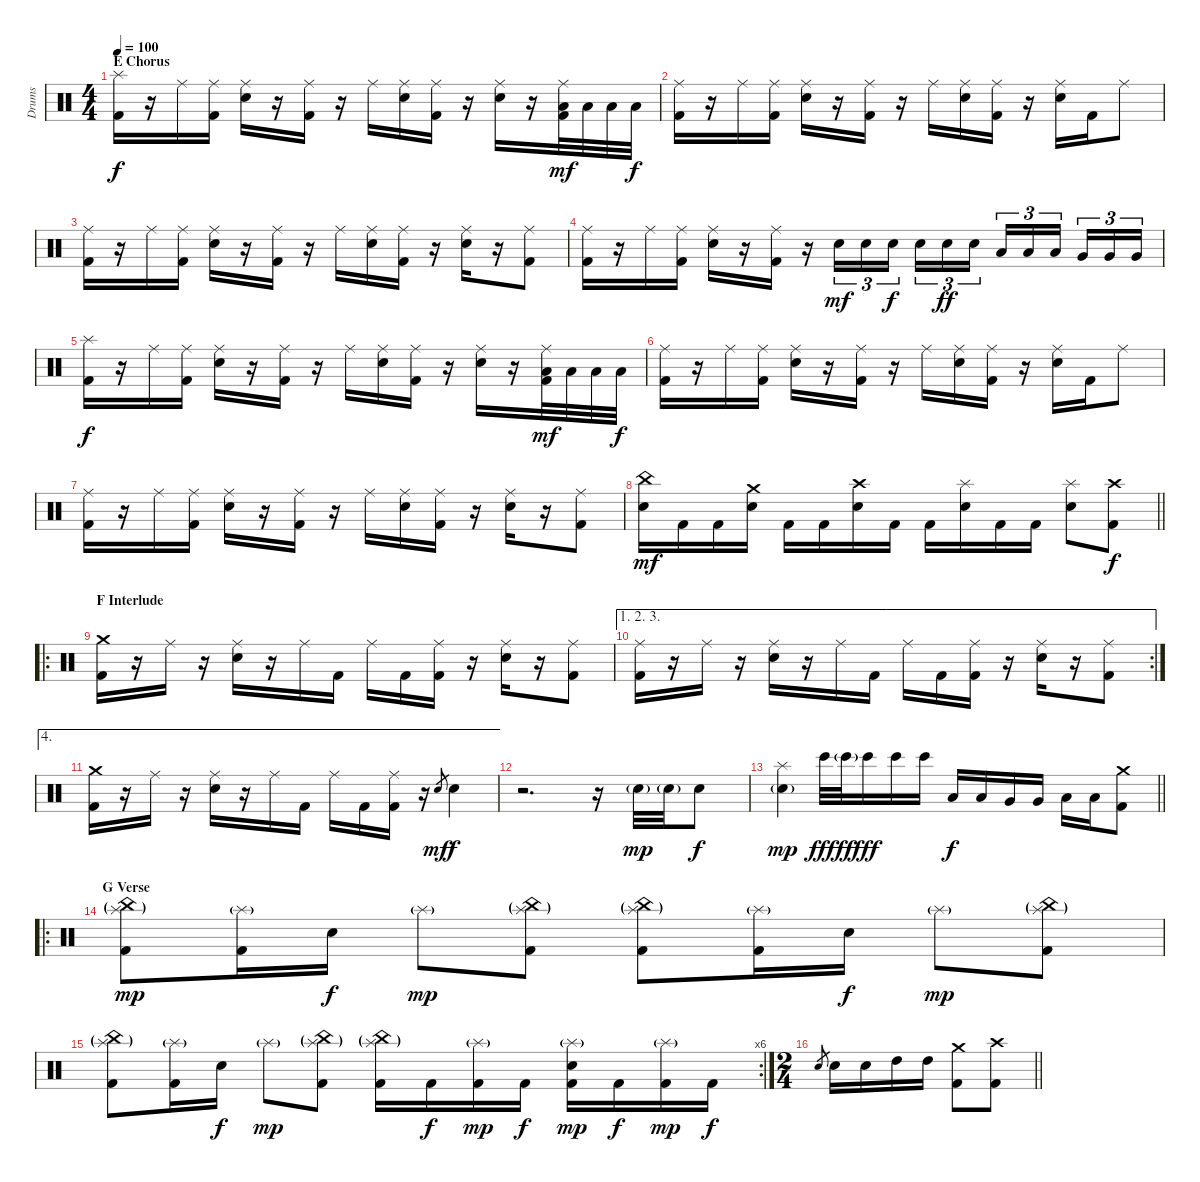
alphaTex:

\track ("Drums" "Drums") {instrument percussion}
\staff {score}
\articulation defaults
\ts (4 4)
\section ("" "E Chorus")
\tempo 100
\clef neutral
\ks c
("Splash (hit)" "Kick (hit) 2").16{dy f} r.16 "Ride (middle)".16 ("Ride (middle)" "Kick (hit) 2").16 ("Ride (middle)" "Electric Snare (hit)").16 r.16 ("Ride (middle)" "Kick (hit) 2").16 r.16 "Ride (middle)".16 ("Ride (middle)" "Electric Snare (hit)").16 ("Ride (middle)" "Kick (hit) 2").16 r.16 ("Ride (middle)" "Electric Snare (hit)").16 r.16 ("Ride (middle)" "Low Floor Tom (hit)" "Kick (hit) 2").32{dy mf} "Low Floor Tom (hit)".32 "Low Floor Tom (hit)".32 "Low Floor Tom (hit)".32{dy f} |
("Ride (middle)" "Kick (hit) 2").16 r.16 "Ride (middle)".16 ("Ride (middle)" "Kick (hit) 2").16 ("Ride (middle)" "Electric Snare (hit)").16 r.16 ("Ride (middle)" "Kick (hit) 2").16 r.16 "Ride (middle)".16 ("Ride (middle)" "Electric Snare (hit)").16 ("Ride (middle)" "Kick (hit) 2").16 r.16 ("Ride (middle)" "Electric Snare (hit)").16 "Kick (hit) 2".16 "Ride (middle)".8 |
("Ride (middle)" "Kick (hit) 2").16 r.16 "Ride (middle)".16 ("Ride (middle)" "Kick (hit) 2").16 ("Ride (middle)" "Electric Snare (hit)").16 r.16 ("Ride (middle)" "Kick (hit) 2").16 r.16 "Ride (middle)".16 ("Ride (middle)" "Electric Snare (hit)").16 ("Ride (middle)" "Kick (hit) 2").16 r.16 ("Ride (middle)" "Electric Snare (hit)").16 r.16 ("Ride (middle)" "Kick (hit) 2").8 |
("Ride (middle)" "Kick (hit) 2").16 r.16 "Ride (middle)".16 ("Ride (middle)" "Kick (hit) 2").16 ("Ride (middle)" "Electric Snare (hit)").16 r.16 ("Ride (middle)" "Kick (hit) 2").16 r.16 "Electric Snare (hit)".16{tu (3 2) dy mf} "Electric Snare (hit)".16{tu (3 2)} "Electric Snare (hit)".16{tu (3 2) dy f beam splitsecondary} "Electric Snare (hit)".16{tu (3 2)} "Electric Snare (hit)".16{tu (3 2) dy ff} "Electric Snare (hit)".16{tu (3 2)} "Low Tom (hit)".16{tu (3 2)} "Low Tom (hit)".16{tu (3 2)} "Low Tom (hit)".16{tu (3 2) beam splitsecondary} "Very Low Tom (hit)".16{tu (3 2)} "Very Low Tom (hit)".16{tu (3 2)} "Very Low Tom (hit)".16{tu (3 2)} |
("Splash (hit)" "Kick (hit) 2").16{dy f} r.16 "Ride (middle)".16 ("Ride (middle)" "Kick (hit) 2").16 ("Ride (middle)" "Electric Snare (hit)").16 r.16 ("Ride (middle)" "Kick (hit) 2").16 r.16 "Ride (middle)".16 ("Ride (middle)" "Electric Snare (hit)").16 ("Ride (middle)" "Kick (hit) 2").16 r.16 ("Ride (middle)" "Electric Snare (hit)").16 r.16 ("Ride (middle)" "Low Floor Tom (hit)" "Kick (hit) 2").32{dy mf} "Low Floor Tom (hit)".32 "Low Floor Tom (hit)".32 "Low Floor Tom (hit)".32{dy f} |
("Ride (middle)" "Kick (hit) 2").16 r.16 "Ride (middle)".16 ("Ride (middle)" "Kick (hit) 2").16 ("Ride (middle)" "Electric Snare (hit)").16 r.16 ("Ride (middle)" "Kick (hit) 2").16 r.16 "Ride (middle)".16 ("Ride (middle)" "Electric Snare (hit)").16 ("Ride (middle)" "Kick (hit) 2").16 r.16 ("Ride (middle)" "Electric Snare (hit)").16 "Kick (hit) 2".16 "Ride (middle)".8 |
("Ride (middle)" "Kick (hit) 2").16 r.16 "Ride (middle)".16 ("Ride (middle)" "Kick (hit) 2").16 ("Ride (middle)" "Electric Snare (hit)").16 r.16 ("Ride (middle)" "Kick (hit) 2").16 r.16 "Ride (middle)".16 ("Ride (middle)" "Electric Snare (hit)").16 ("Ride (middle)" "Kick (hit) 2").16 r.16 ("Ride (middle)" "Electric Snare (hit)").16 r.16 ("Ride (middle)" "Kick (hit) 2").8 |
\barLineRight lightlight
("China (hit)" "Electric Snare (hit)").16{dy mf} "Kick (hit) 2".16 "Kick (hit) 2".16 ("Crash medium (hit)" "Electric Snare (hit)").16 "Kick (hit) 2".16 "Kick (hit) 2".16 ("Crash high (hit)" "Electric Snare (hit)").16 "Kick (hit) 2".16 "Kick (hit) 2".16 ("Splash (hit)" "Electric Snare (hit)").16 "Kick (hit) 2".16 "Kick (hit) 2".16 ("Splash (hit)" "Electric Snare (hit)").8 ("Crash high (hit)" "Kick (hit) 2").8{dy f} |
\ro
\section ("" "F Interlude")
("Crash medium (hit)" "Kick (hit) 2").16 r.16 "Ride (middle)".16 r.16 ("Ride (middle)" "Electric Snare (hit)").16 r.16 "Ride (middle)".16 "Kick (hit) 2".16 "Ride (middle)".16 "Kick (hit) 2".16 ("Ride (middle)" "Kick (hit) 2").16 r.16 ("Ride (middle)" "Electric Snare (hit)").16 r.16 ("Ride (middle)" "Kick (hit) 2").8 |
\ae (1 2 3)
\rc 2
("Ride (middle)" "Kick (hit) 2").16 r.16 "Ride (middle)".16 r.16 ("Ride (middle)" "Electric Snare (hit)").16 r.16 "Ride (middle)".16 "Kick (hit) 2".16 "Ride (middle)".16 "Kick (hit) 2".16 ("Ride (middle)" "Kick (hit) 2").16 r.16 ("Ride (middle)" "Electric Snare (hit)").16 r.16 ("Ride (middle)" "Kick (hit) 2").8 |
\ae 4
("Crash medium (hit)" "Kick (hit) 2").16 r.16 "Ride (middle)".16 r.16 ("Ride (middle)" "Electric Snare (hit)").16 r.16 "Ride (middle)".16 "Kick (hit) 2".16 "Ride (middle)".16 "Kick (hit) 2".16 ("Ride (middle)" "Kick (hit) 2").16 r.16 "Electric Snare (hit)".8{gr dy mf} "Electric Snare (hit)".4{dy f} |
r.2{d} r.16 "Electric Snare (hit)"{g}.32{dy mp} "Electric Snare (hit)"{g}.32 "Electric Snare (hit)".8{dy f} |
\barLineRight lightlight
("Splash (hit)" "Electric Snare (hit)"{g}).4{dy mp} "Bongo High (hit)".32{dy fff} "Bongo High (hit)"{g}.32{dy ff} "Bongo High (hit)".16{dy fff} "Bongo High (hit)".16 "Bongo High (hit)".16 "Low Tom (hit)".16{dy f} "Low Tom (hit)".16 "Very Low Tom (hit)".16 "Very Low Tom (hit)".16 "Low Floor Tom (hit)".16 "Low Floor Tom (hit)".16 ("Crash medium (hit)" "Kick (hit) 2").8 |
\ro
\section ("" "G Verse")
("Splash (hit)"{g} "China (hit)"{g} "Kick (hit) 2").8{dy mp} ("Splash (hit)"{g} "Kick (hit) 2").16 "Electric Snare (hit)".16{dy f} "Splash (hit)"{g}.8{dy mp} ("Splash (hit)"{g} "China (hit)"{g} "Kick (hit) 2").8 ("Splash (hit)"{g} "China (hit)"{g} "Kick (hit) 2").8 ("Splash (hit)"{g} "Kick (hit) 2").16 "Electric Snare (hit)".16{dy f} "Splash (hit)"{g}.8{dy mp} ("Splash (hit)"{g} "China (hit)"{g} "Kick (hit) 2").8 |
\rc 6
("Splash (hit)"{g} "China (hit)"{g} "Kick (hit) 2").8 ("Splash (hit)"{g} "Kick (hit) 2").16 "Electric Snare (hit)".16{dy f} "Splash (hit)"{g}.8{dy mp} ("Splash (hit)"{g} "China (hit)"{g} "Kick (hit) 2").8 ("Splash (hit)"{g} "China (hit)"{g} "Kick (hit) 2").16 "Kick (hit) 2".16{dy f} ("Splash (hit)"{g} "Kick (hit) 2").16{dy mp} "Kick (hit) 2".16{dy f} ("Splash (hit)"{g} "Electric Snare (hit)" "Kick (hit) 2").16{dy mp} "Kick (hit) 2".16{dy f} ("Splash (hit)"{g} "Kick (hit) 2").16{dy mp} "Kick (hit) 2".16{dy f} |
\ts (2 4)
\barLineRight lightlight "Electric Snare (hit)".8{gr} "Electric Snare (hit)".16 "Electric Snare (hit)".16 "High Tom (hit)".16 "High Tom (hit)".16
("Crash medium (hit)" "Kick (hit) 2").8 ("Crash high (hit)" "Kick (hit) 2").8
